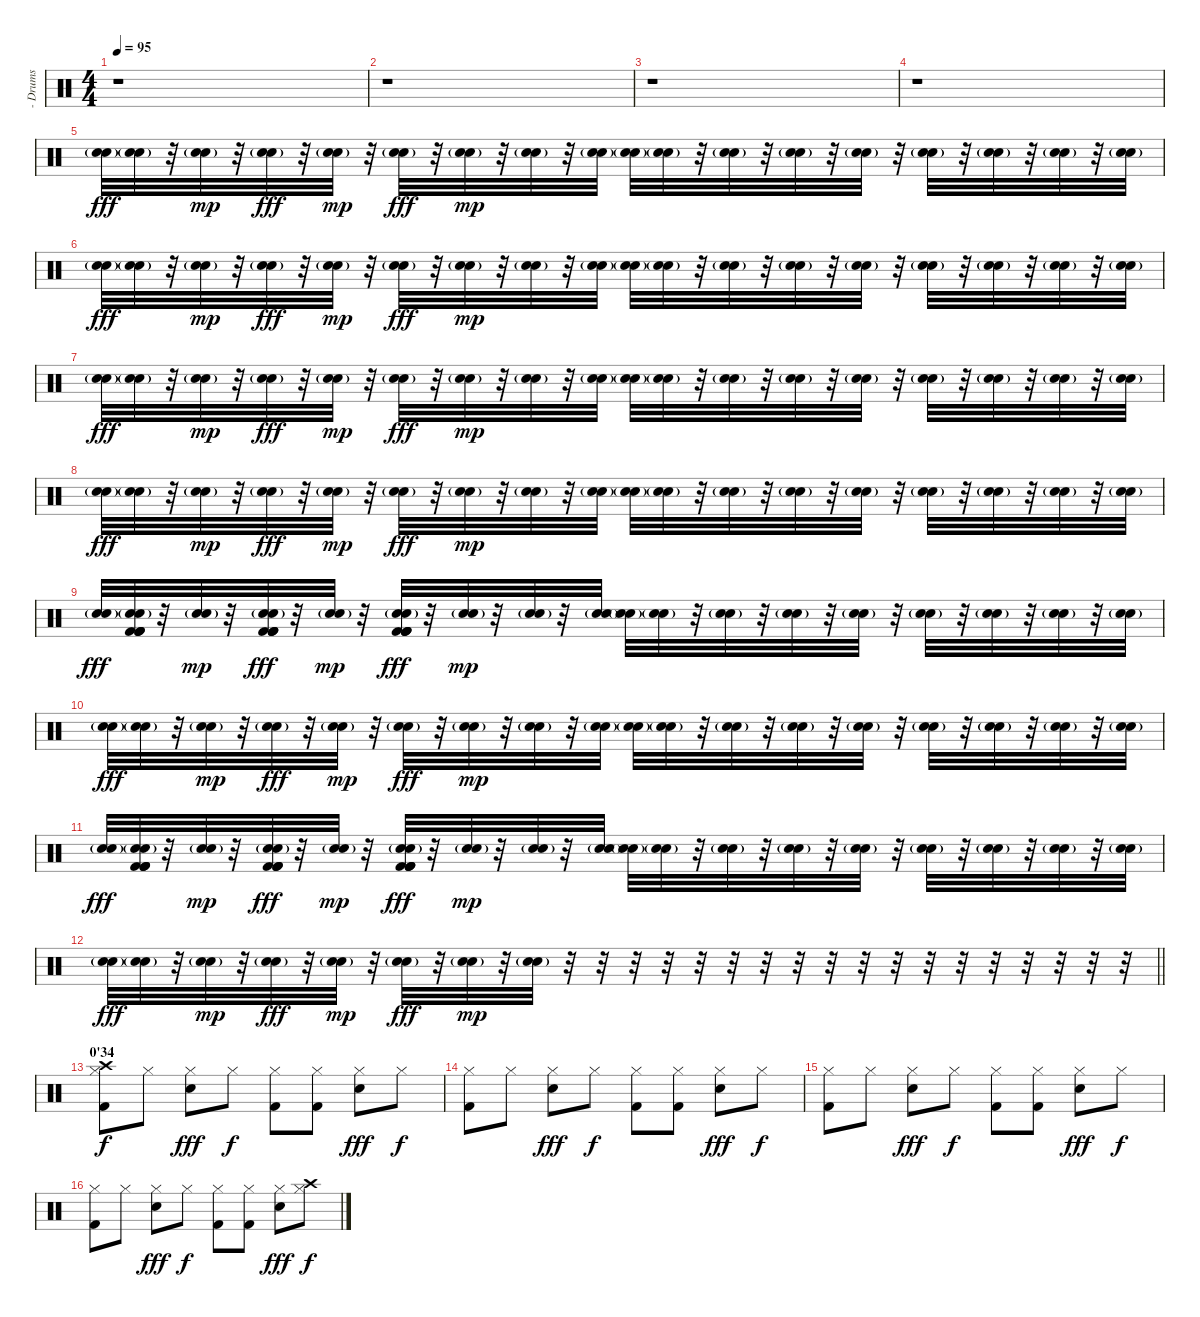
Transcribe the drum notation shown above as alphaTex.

\track ("- Drums" "- Drums") {instrument percussion}
\staff {score}
\articulation defaults
\ts (4 4)
\tempo 95
\clef neutral
\ks c
r.1{dy fff} |
r.1 |
r.1 |
r.1 |
("Snare (hit) 2"{g} "Electric Snare (hit)").32 ("Snare (hit) 2"{g} "Electric Snare (hit)").32 r.32 ("Snare (hit) 2"{g} "Electric Snare (hit)").32{dy mp} r.32 ("Snare (hit) 2"{g} "Electric Snare (hit)").32{dy fff} r.32 ("Snare (hit) 2"{g} "Electric Snare (hit)").32{dy mp} r.32 ("Snare (hit) 2"{g} "Electric Snare (hit)").32{dy fff} r.32 ("Snare (hit) 2"{g} "Electric Snare (hit)").32{dy mp} r.32 ("Snare (hit) 2"{g} "Electric Snare (hit)").32 r.32 ("Snare (hit) 2"{g} "Electric Snare (hit)").32 ("Snare (hit) 2"{g} "Electric Snare (hit)").32 ("Snare (hit) 2"{g} "Electric Snare (hit)").32 r.32 ("Snare (hit) 2"{g} "Electric Snare (hit)").32 r.32 ("Snare (hit) 2"{g} "Electric Snare (hit)").32 r.32 ("Snare (hit) 2"{g} "Electric Snare (hit)").32 r.32 ("Snare (hit) 2"{g} "Electric Snare (hit)").32 r.32 ("Snare (hit) 2"{g} "Electric Snare (hit)").32 r.32 ("Snare (hit) 2"{g} "Electric Snare (hit)").32 r.32 ("Snare (hit) 2"{g} "Electric Snare (hit)").32 |
("Snare (hit) 2"{g} "Electric Snare (hit)").32{dy fff} ("Snare (hit) 2"{g} "Electric Snare (hit)").32 r.32 ("Snare (hit) 2"{g} "Electric Snare (hit)").32{dy mp} r.32 ("Snare (hit) 2"{g} "Electric Snare (hit)").32{dy fff} r.32 ("Snare (hit) 2"{g} "Electric Snare (hit)").32{dy mp} r.32 ("Snare (hit) 2"{g} "Electric Snare (hit)").32{dy fff} r.32 ("Snare (hit) 2"{g} "Electric Snare (hit)").32{dy mp} r.32 ("Snare (hit) 2"{g} "Electric Snare (hit)").32 r.32 ("Snare (hit) 2"{g} "Electric Snare (hit)").32 ("Snare (hit) 2"{g} "Electric Snare (hit)").32 ("Snare (hit) 2"{g} "Electric Snare (hit)").32 r.32 ("Snare (hit) 2"{g} "Electric Snare (hit)").32 r.32 ("Snare (hit) 2"{g} "Electric Snare (hit)").32 r.32 ("Snare (hit) 2"{g} "Electric Snare (hit)").32 r.32 ("Snare (hit) 2"{g} "Electric Snare (hit)").32 r.32 ("Snare (hit) 2"{g} "Electric Snare (hit)").32 r.32 ("Snare (hit) 2"{g} "Electric Snare (hit)").32 r.32 ("Snare (hit) 2"{g} "Electric Snare (hit)").32 |
("Snare (hit) 2"{g} "Electric Snare (hit)").32{dy fff} ("Snare (hit) 2"{g} "Electric Snare (hit)").32 r.32 ("Snare (hit) 2"{g} "Electric Snare (hit)").32{dy mp} r.32 ("Snare (hit) 2"{g} "Electric Snare (hit)").32{dy fff} r.32 ("Snare (hit) 2"{g} "Electric Snare (hit)").32{dy mp} r.32 ("Snare (hit) 2"{g} "Electric Snare (hit)").32{dy fff} r.32 ("Snare (hit) 2"{g} "Electric Snare (hit)").32{dy mp} r.32 ("Snare (hit) 2"{g} "Electric Snare (hit)").32 r.32 ("Snare (hit) 2"{g} "Electric Snare (hit)").32 ("Snare (hit) 2"{g} "Electric Snare (hit)").32 ("Snare (hit) 2"{g} "Electric Snare (hit)").32 r.32 ("Snare (hit) 2"{g} "Electric Snare (hit)").32 r.32 ("Snare (hit) 2"{g} "Electric Snare (hit)").32 r.32 ("Snare (hit) 2"{g} "Electric Snare (hit)").32 r.32 ("Snare (hit) 2"{g} "Electric Snare (hit)").32 r.32 ("Snare (hit) 2"{g} "Electric Snare (hit)").32 r.32 ("Snare (hit) 2"{g} "Electric Snare (hit)").32 r.32 ("Snare (hit) 2"{g} "Electric Snare (hit)").32 |
("Snare (hit) 2"{g} "Electric Snare (hit)").32{dy fff} ("Snare (hit) 2"{g} "Electric Snare (hit)").32 r.32 ("Snare (hit) 2"{g} "Electric Snare (hit)").32{dy mp} r.32 ("Snare (hit) 2"{g} "Electric Snare (hit)").32{dy fff} r.32 ("Snare (hit) 2"{g} "Electric Snare (hit)").32{dy mp} r.32 ("Snare (hit) 2"{g} "Electric Snare (hit)").32{dy fff} r.32 ("Snare (hit) 2"{g} "Electric Snare (hit)").32{dy mp} r.32 ("Snare (hit) 2"{g} "Electric Snare (hit)").32 r.32 ("Snare (hit) 2"{g} "Electric Snare (hit)").32 ("Snare (hit) 2"{g} "Electric Snare (hit)").32 ("Snare (hit) 2"{g} "Electric Snare (hit)").32 r.32 ("Snare (hit) 2"{g} "Electric Snare (hit)").32 r.32 ("Snare (hit) 2"{g} "Electric Snare (hit)").32 r.32 ("Snare (hit) 2"{g} "Electric Snare (hit)").32 r.32 ("Snare (hit) 2"{g} "Electric Snare (hit)").32 r.32 ("Snare (hit) 2"{g} "Electric Snare (hit)").32 r.32 ("Snare (hit) 2"{g} "Electric Snare (hit)").32 r.32 ("Snare (hit) 2"{g} "Electric Snare (hit)").32 |
("Snare (hit) 2"{g} "Electric Snare (hit)").32{dy fff} ("Kick (hit) 2" "Kick (hit) 2" "Kick (hit) 2" "Kick (hit) 2" "Snare (hit) 2"{g} "Electric Snare (hit)").32 r.32 ("Snare (hit) 2"{g} "Electric Snare (hit)").32{dy mp} r.32 ("Kick (hit) 2" "Kick (hit) 2" "Kick (hit) 2" "Kick (hit) 2" "Snare (hit) 2"{g} "Electric Snare (hit)").32{dy fff} r.32 ("Snare (hit) 2"{g} "Electric Snare (hit)").32{dy mp} r.32 ("Kick (hit) 2" "Kick (hit) 2" "Kick (hit) 2" "Kick (hit) 2" "Snare (hit) 2"{g} "Electric Snare (hit)").32{dy fff} r.32 ("Snare (hit) 2"{g} "Electric Snare (hit)").32{dy mp} r.32 ("Snare (hit) 2"{g} "Electric Snare (hit)").32 r.32 ("Snare (hit) 2"{g} "Electric Snare (hit)").32 ("Snare (hit) 2"{g} "Electric Snare (hit)").32 ("Snare (hit) 2"{g} "Electric Snare (hit)").32 r.32 ("Snare (hit) 2"{g} "Electric Snare (hit)").32 r.32 ("Snare (hit) 2"{g} "Electric Snare (hit)").32 r.32 ("Snare (hit) 2"{g} "Electric Snare (hit)").32 r.32 ("Snare (hit) 2"{g} "Electric Snare (hit)").32 r.32 ("Snare (hit) 2"{g} "Electric Snare (hit)").32 r.32 ("Snare (hit) 2"{g} "Electric Snare (hit)").32 r.32 ("Snare (hit) 2"{g} "Electric Snare (hit)").32 |
("Snare (hit) 2"{g} "Electric Snare (hit)").32{dy fff} ("Snare (hit) 2"{g} "Electric Snare (hit)").32 r.32 ("Snare (hit) 2"{g} "Electric Snare (hit)").32{dy mp} r.32 ("Snare (hit) 2"{g} "Electric Snare (hit)").32{dy fff} r.32 ("Snare (hit) 2"{g} "Electric Snare (hit)").32{dy mp} r.32 ("Snare (hit) 2"{g} "Electric Snare (hit)").32{dy fff} r.32 ("Snare (hit) 2"{g} "Electric Snare (hit)").32{dy mp} r.32 ("Snare (hit) 2"{g} "Electric Snare (hit)").32 r.32 ("Snare (hit) 2"{g} "Electric Snare (hit)").32 ("Snare (hit) 2"{g} "Electric Snare (hit)").32 ("Snare (hit) 2"{g} "Electric Snare (hit)").32 r.32 ("Snare (hit) 2"{g} "Electric Snare (hit)").32 r.32 ("Snare (hit) 2"{g} "Electric Snare (hit)").32 r.32 ("Snare (hit) 2"{g} "Electric Snare (hit)").32 r.32 ("Snare (hit) 2"{g} "Electric Snare (hit)").32 r.32 ("Snare (hit) 2"{g} "Electric Snare (hit)").32 r.32 ("Snare (hit) 2"{g} "Electric Snare (hit)").32 r.32 ("Snare (hit) 2"{g} "Electric Snare (hit)").32 |
("Snare (hit) 2"{g} "Electric Snare (hit)").32{dy fff} ("Kick (hit) 2" "Kick (hit) 2" "Kick (hit) 2" "Kick (hit) 2" "Snare (hit) 2"{g} "Electric Snare (hit)").32 r.32 ("Snare (hit) 2"{g} "Electric Snare (hit)").32{dy mp} r.32 ("Kick (hit) 2" "Kick (hit) 2" "Kick (hit) 2" "Kick (hit) 2" "Snare (hit) 2"{g} "Electric Snare (hit)").32{dy fff} r.32 ("Snare (hit) 2"{g} "Electric Snare (hit)").32{dy mp} r.32 ("Kick (hit) 2" "Kick (hit) 2" "Kick (hit) 2" "Kick (hit) 2" "Snare (hit) 2"{g} "Electric Snare (hit)").32{dy fff} r.32 ("Snare (hit) 2"{g} "Electric Snare (hit)").32{dy mp} r.32 ("Snare (hit) 2"{g} "Electric Snare (hit)").32 r.32 ("Snare (hit) 2"{g} "Electric Snare (hit)").32 ("Snare (hit) 2"{g} "Electric Snare (hit)").32 ("Snare (hit) 2"{g} "Electric Snare (hit)").32 r.32 ("Snare (hit) 2"{g} "Electric Snare (hit)").32 r.32 ("Snare (hit) 2"{g} "Electric Snare (hit)").32 r.32 ("Snare (hit) 2"{g} "Electric Snare (hit)").32 r.32 ("Snare (hit) 2"{g} "Electric Snare (hit)").32 r.32 ("Snare (hit) 2"{g} "Electric Snare (hit)").32 r.32 ("Snare (hit) 2"{g} "Electric Snare (hit)").32 r.32 ("Snare (hit) 2"{g} "Electric Snare (hit)").32 |
\barLineRight lightlight
("Snare (hit) 2"{g} "Electric Snare (hit)").32{dy fff} ("Snare (hit) 2"{g} "Electric Snare (hit)").32 r.32 ("Snare (hit) 2"{g} "Electric Snare (hit)").32{dy mp} r.32 ("Snare (hit) 2"{g} "Electric Snare (hit)").32{dy fff} r.32 ("Snare (hit) 2"{g} "Electric Snare (hit)").32{dy mp} r.32 ("Snare (hit) 2"{g} "Electric Snare (hit)").32{dy fff} r.32 ("Snare (hit) 2"{g} "Electric Snare (hit)").32{dy mp} r.32 ("Snare (hit) 2"{g} "Electric Snare (hit)").32 r.32 r.32 r.32 r.32 r.32 r.32 r.32 r.32 r.32 r.32 r.32 r.32 r.32 r.32 r.32 r.32 r.32 r.32 |
\section ("" "0'34")
("Hi-Hat (closed)" "Crash high (hit)" "Kick (hit) 2").8{dy f} "Hi-Hat (closed)".8 ("Hi-Hat (closed)" "Electric Snare (hit)").8{dy fff} "Hi-Hat (closed)".8{dy f} ("Hi-Hat (closed)" "Kick (hit) 2").8 ("Hi-Hat (closed)" "Kick (hit) 2").8 ("Hi-Hat (closed)" "Electric Snare (hit)").8{dy fff} "Hi-Hat (closed)".8{dy f} |
("Hi-Hat (closed)" "Kick (hit) 2").8 "Hi-Hat (closed)".8 ("Hi-Hat (closed)" "Electric Snare (hit)").8{dy fff} "Hi-Hat (closed)".8{dy f} ("Hi-Hat (closed)" "Kick (hit) 2").8 ("Hi-Hat (closed)" "Kick (hit) 2").8 ("Hi-Hat (closed)" "Electric Snare (hit)").8{dy fff} "Hi-Hat (closed)".8{dy f} |
("Hi-Hat (closed)" "Kick (hit) 2").8 "Hi-Hat (closed)".8 ("Hi-Hat (closed)" "Electric Snare (hit)").8{dy fff} "Hi-Hat (closed)".8{dy f} ("Hi-Hat (closed)" "Kick (hit) 2").8 ("Hi-Hat (closed)" "Kick (hit) 2").8 ("Hi-Hat (closed)" "Electric Snare (hit)").8{dy fff} "Hi-Hat (closed)".8{dy f} |
("Hi-Hat (closed)" "Kick (hit) 2").8 "Hi-Hat (closed)".8 ("Hi-Hat (closed)" "Electric Snare (hit)").8{dy fff} "Hi-Hat (closed)".8{dy f} ("Hi-Hat (closed)" "Kick (hit) 2").8 ("Hi-Hat (closed)" "Kick (hit) 2").8 ("Hi-Hat (closed)" "Electric Snare (hit)").8{dy fff} ("Hi-Hat (closed)" "Crash high (hit)").8{dy f}
